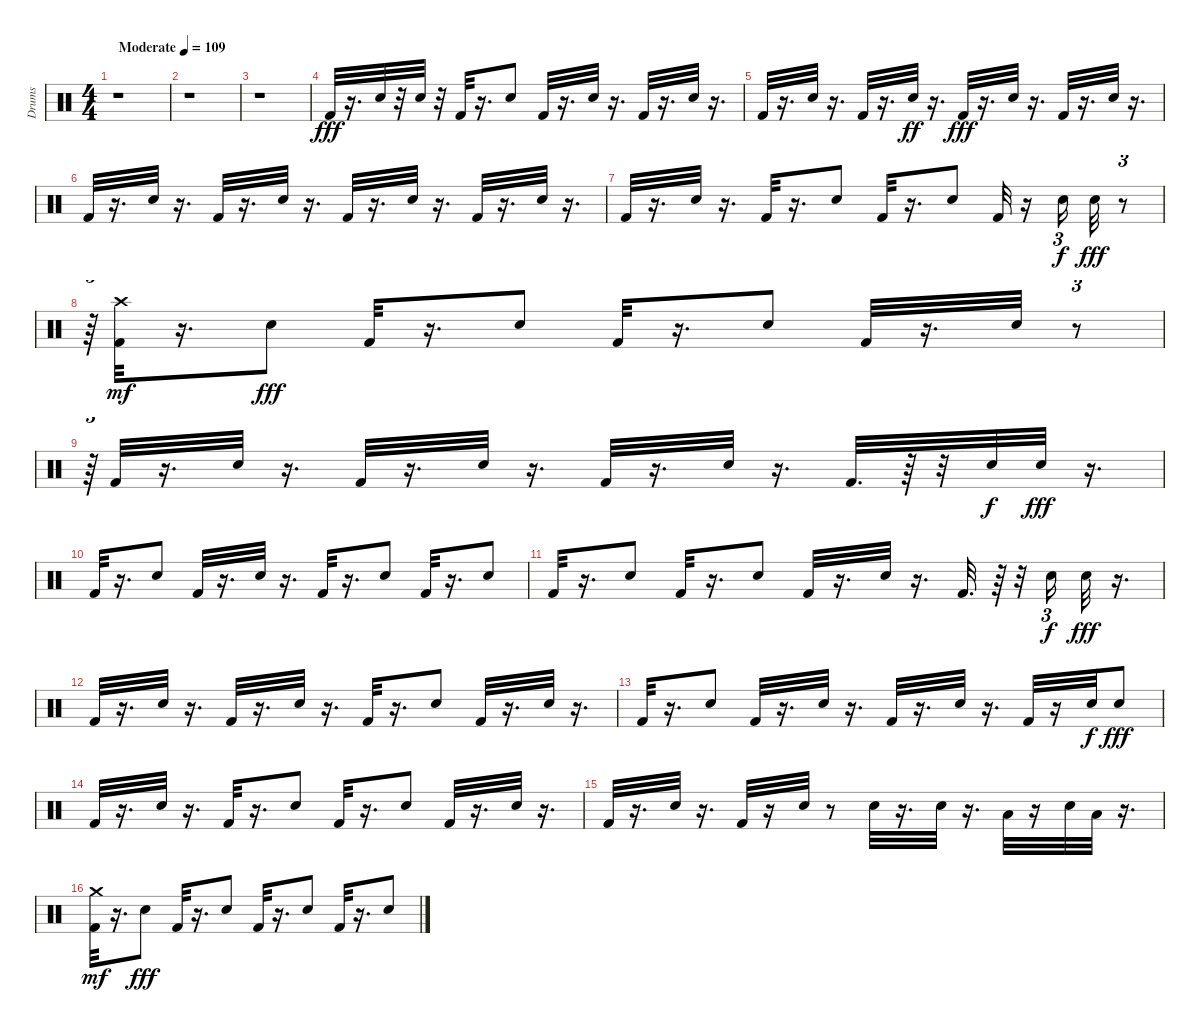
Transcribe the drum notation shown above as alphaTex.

\track ("Drums" "Drums") {instrument percussion}
\staff {score}
\articulation defaults
\ts (4 4)
\tempo (109 "Moderate")
\clef neutral
\ks c
r.1{dy fff} |
r.1 |
r.1 |
"Kick (hit) 2".32 r.16{d} "Snare (hit) 2".32 r.32 "Snare (hit) 2".32 r.32 "Kick (hit) 2".32 r.16{d} "Snare (hit) 2".8 "Kick (hit) 2".32 r.16{d} "Snare (hit) 2".32 r.16{d} "Kick (hit) 2".32 r.16{d} "Snare (hit) 2".32 r.16{d} |
"Kick (hit) 2".32 r.16{d} "Snare (hit) 2".32 r.16{d} "Kick (hit) 2".32 r.16{d} "Snare (hit) 2".32{dy ff} r.16{d} "Kick (hit) 2".32{dy fff} r.16{d} "Snare (hit) 2".32 r.16{d} "Kick (hit) 2".32 r.16{d} "Snare (hit) 2".32 r.16{d} |
"Kick (hit) 2".32 r.16{d} "Snare (hit) 2".32 r.16{d} "Kick (hit) 2".32 r.16{d} "Snare (hit) 2".32 r.16{d} "Kick (hit) 2".32 r.16{d} "Snare (hit) 2".32 r.16{d} "Kick (hit) 2".32 r.16{d} "Snare (hit) 2".32 r.16{d} |
"Kick (hit) 2".32 r.16{d} "Snare (hit) 2".32 r.16{d} "Kick (hit) 2".32 r.16{d} "Snare (hit) 2".8 "Kick (hit) 2".32 r.16{d} "Snare (hit) 2".8 "Kick (hit) 2".32 r.16 "Snare (hit) 2".16{tu (3 2) dy f} "Snare (hit) 2".32{dy fff} r.8{tu (3 2)} |
r.64{tu (3 2)} ("Kick (hit) 2" "Crash high (hit)").32{dy mf} r.16{d} "Snare (hit) 2".8{dy fff} "Kick (hit) 2".32 r.16{d} "Snare (hit) 2".8 "Kick (hit) 2".32 r.16{d} "Snare (hit) 2".8 "Kick (hit) 2".32 r.16{d} "Snare (hit) 2".32 r.8{tu (3 2)} |
r.64{tu (3 2)} "Kick (hit) 2".32 r.16{d} "Snare (hit) 2".32 r.16{d} "Kick (hit) 2".32 r.16{d} "Snare (hit) 2".32 r.16{d} "Kick (hit) 2".32 r.16{d} "Snare (hit) 2".32 r.16{d} "Kick (hit) 2".32{d} r.64 r.32 "Snare (hit) 2".32{dy f} "Snare (hit) 2".32{dy fff} r.16{d} |
"Kick (hit) 2".32 r.16{d} "Snare (hit) 2".8 "Kick (hit) 2".32 r.16{d} "Snare (hit) 2".32 r.16{d} "Kick (hit) 2".32 r.16{d} "Snare (hit) 2".8 "Kick (hit) 2".32 r.16{d} "Snare (hit) 2".8 |
"Kick (hit) 2".32 r.16{d} "Snare (hit) 2".8 "Kick (hit) 2".32 r.16{d} "Snare (hit) 2".8 "Kick (hit) 2".32 r.16{d} "Snare (hit) 2".32 r.16{d} "Kick (hit) 2".32{d} r.64 r.32 "Snare (hit) 2".16{tu (3 2) dy f} "Snare (hit) 2".32{dy fff} r.16{d} |
"Kick (hit) 2".32 r.16{d} "Snare (hit) 2".32 r.16{d} "Kick (hit) 2".32 r.16{d} "Snare (hit) 2".32 r.16{d} "Kick (hit) 2".32 r.16{d} "Snare (hit) 2".8 "Kick (hit) 2".32 r.16{d} "Snare (hit) 2".32 r.16{d} |
"Kick (hit) 2".32 r.16{d} "Snare (hit) 2".8 "Kick (hit) 2".32 r.16{d} "Snare (hit) 2".32 r.16{d} "Kick (hit) 2".32 r.16{d} "Snare (hit) 2".32 r.16{d} "Kick (hit) 2".32 r.16 "Snare (hit) 2".32{dy f} "Snare (hit) 2".8{dy fff} |
"Kick (hit) 2".32 r.16{d} "Snare (hit) 2".32 r.16{d} "Kick (hit) 2".32 r.16{d} "Snare (hit) 2".8 "Kick (hit) 2".32 r.16{d} "Snare (hit) 2".8 "Kick (hit) 2".32 r.16{d} "Snare (hit) 2".32 r.16{d} |
"Kick (hit) 2".32 r.16{d} "Snare (hit) 2".32 r.16{d} "Kick (hit) 2".32 r.16 "Snare (hit) 2".32 r.8 "Snare (hit) 2".32 r.16{d} "Snare (hit) 2".32 r.16{d} "Low Floor Tom (hit)".32 r.16 "Snare (hit) 2".32 "Low Tom (hit)".32 r.16{d} |
("Kick (hit) 2" "Crash medium (hit)").32{dy mf} r.16{d} "Snare (hit) 2".8{dy fff} "Kick (hit) 2".32 r.16{d} "Snare (hit) 2".8 "Kick (hit) 2".32 r.16{d} "Snare (hit) 2".8 "Kick (hit) 2".32 r.16{d} "Snare (hit) 2".8
